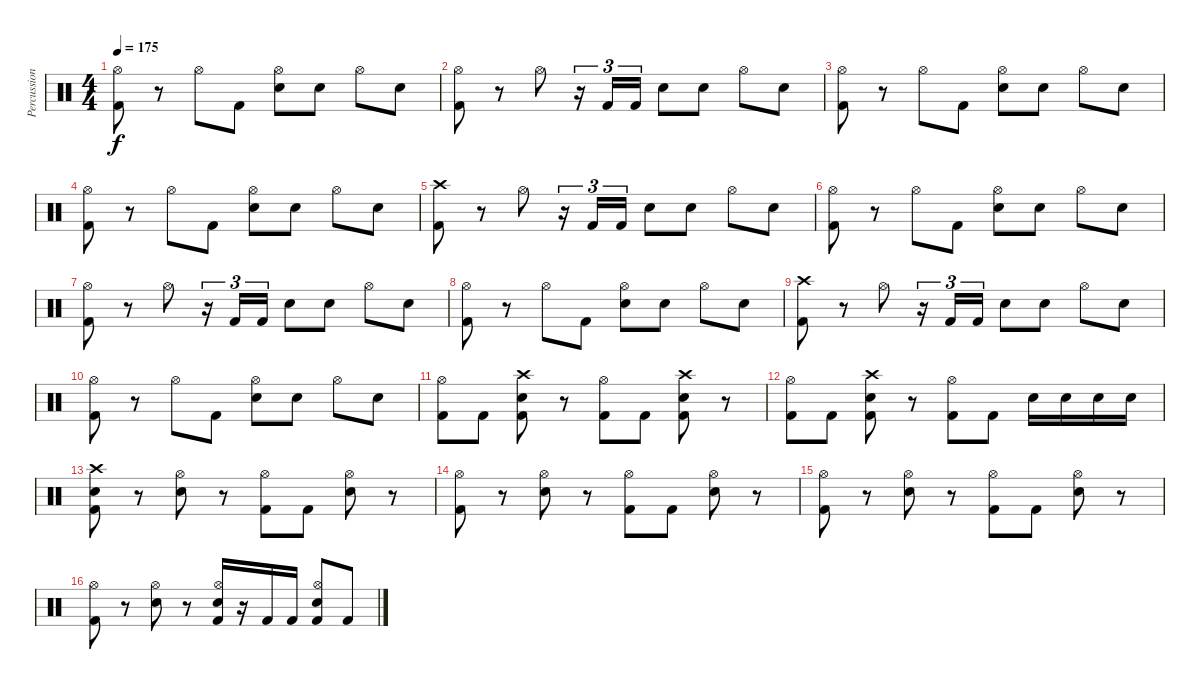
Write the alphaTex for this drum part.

\track ("Percussions" "Percussion") {instrument percussion}
\staff {score}
\articulation defaults
\ts (4 4)
\tempo 175
\clef neutral
\ks c
("Kick (hit) 2" "Hi-Hat (open)").8{dy f} r.8 "Hi-Hat (open)".8 "Kick (hit) 2".8 ("Electric Snare (hit)" "Hi-Hat (open)").8 "Electric Snare (hit)".8 "Hi-Hat (open)".8 "Electric Snare (hit)".8 |
("Kick (hit) 2" "Hi-Hat (open)").8 r.8 "Hi-Hat (open)".8 r.16{tu (3 2)} "Kick (hit) 2".16{tu (3 2)} "Kick (hit) 2".16{tu (3 2)} "Electric Snare (hit)".8 "Electric Snare (hit)".8 "Hi-Hat (open)".8 "Electric Snare (hit)".8 |
("Kick (hit) 2" "Hi-Hat (open)").8 r.8 "Hi-Hat (open)".8 "Kick (hit) 2".8 ("Electric Snare (hit)" "Hi-Hat (open)").8 "Electric Snare (hit)".8 "Hi-Hat (open)".8 "Electric Snare (hit)".8 |
("Kick (hit) 2" "Hi-Hat (open)").8 r.8 "Hi-Hat (open)".8 "Kick (hit) 2".8 ("Electric Snare (hit)" "Hi-Hat (open)").8 "Electric Snare (hit)".8 "Hi-Hat (open)".8 "Electric Snare (hit)".8 |
("Kick (hit) 2" "Crash high (hit)").8 r.8 "Hi-Hat (open)".8 r.16{tu (3 2)} "Kick (hit) 2".16{tu (3 2)} "Kick (hit) 2".16{tu (3 2)} "Electric Snare (hit)".8 "Electric Snare (hit)".8 "Hi-Hat (open)".8 "Electric Snare (hit)".8 |
("Kick (hit) 2" "Hi-Hat (open)").8 r.8 "Hi-Hat (open)".8 "Kick (hit) 2".8 ("Electric Snare (hit)" "Hi-Hat (open)").8 "Electric Snare (hit)".8 "Hi-Hat (open)".8 "Electric Snare (hit)".8 |
("Kick (hit) 2" "Hi-Hat (open)").8 r.8 "Hi-Hat (open)".8 r.16{tu (3 2)} "Kick (hit) 2".16{tu (3 2)} "Kick (hit) 2".16{tu (3 2)} "Electric Snare (hit)".8 "Electric Snare (hit)".8 "Hi-Hat (open)".8 "Electric Snare (hit)".8 |
("Kick (hit) 2" "Hi-Hat (open)").8 r.8 "Hi-Hat (open)".8 "Kick (hit) 2".8 ("Electric Snare (hit)" "Hi-Hat (open)").8 "Electric Snare (hit)".8 "Hi-Hat (open)".8 "Electric Snare (hit)".8 |
("Kick (hit) 2" "Crash high (hit)").8 r.8 "Hi-Hat (open)".8 r.16{tu (3 2)} "Kick (hit) 2".16{tu (3 2)} "Kick (hit) 2".16{tu (3 2)} "Electric Snare (hit)".8 "Electric Snare (hit)".8 "Hi-Hat (open)".8 "Electric Snare (hit)".8 |
("Kick (hit) 2" "Hi-Hat (open)").8 r.8 "Hi-Hat (open)".8 "Kick (hit) 2".8 ("Electric Snare (hit)" "Hi-Hat (open)").8 "Electric Snare (hit)".8 "Hi-Hat (open)".8 "Electric Snare (hit)".8 |
("Kick (hit) 2" "Hi-Hat (open)").8 "Kick (hit) 2".8 ("Kick (hit) 2" "Electric Snare (hit)" "Crash high (hit)").8 r.8 ("Kick (hit) 2" "Hi-Hat (open)").8 "Kick (hit) 2".8 ("Kick (hit) 2" "Electric Snare (hit)" "Crash high (hit)").8 r.8 |
("Kick (hit) 2" "Hi-Hat (open)").8 "Kick (hit) 2".8 ("Kick (hit) 2" "Electric Snare (hit)" "Crash high (hit)").8 r.8 ("Kick (hit) 2" "Hi-Hat (open)").8 "Kick (hit) 2".8 "Electric Snare (hit)".16 "Electric Snare (hit)".16 "Electric Snare (hit)".16 "Electric Snare (hit)".16 |
("Kick (hit) 2" "Electric Snare (hit)" "Crash high (hit)").8 r.8 ("Electric Snare (hit)" "Hi-Hat (open)").8 r.8 ("Kick (hit) 2" "Hi-Hat (open)").8 "Kick (hit) 2".8 ("Electric Snare (hit)" "Hi-Hat (open)").8 r.8 |
("Kick (hit) 2" "Hi-Hat (open)").8 r.8 ("Electric Snare (hit)" "Hi-Hat (open)").8 r.8 ("Kick (hit) 2" "Hi-Hat (open)").8 "Kick (hit) 2".8 ("Electric Snare (hit)" "Hi-Hat (open)").8 r.8 |
("Kick (hit) 2" "Hi-Hat (open)").8 r.8 ("Electric Snare (hit)" "Hi-Hat (open)").8 r.8 ("Kick (hit) 2" "Hi-Hat (open)").8 "Kick (hit) 2".8 ("Electric Snare (hit)" "Hi-Hat (open)").8 r.8 |
("Kick (hit) 2" "Hi-Hat (open)").8 r.8 ("Electric Snare (hit)" "Hi-Hat (open)").8 r.8 ("Kick (hit) 2" "Electric Snare (hit)" "Hi-Hat (open)").16 r.16 "Kick (hit) 2".16 "Kick (hit) 2".16 ("Kick (hit) 2" "Electric Snare (hit)" "Hi-Hat (open)").8 "Kick (hit) 2".8
